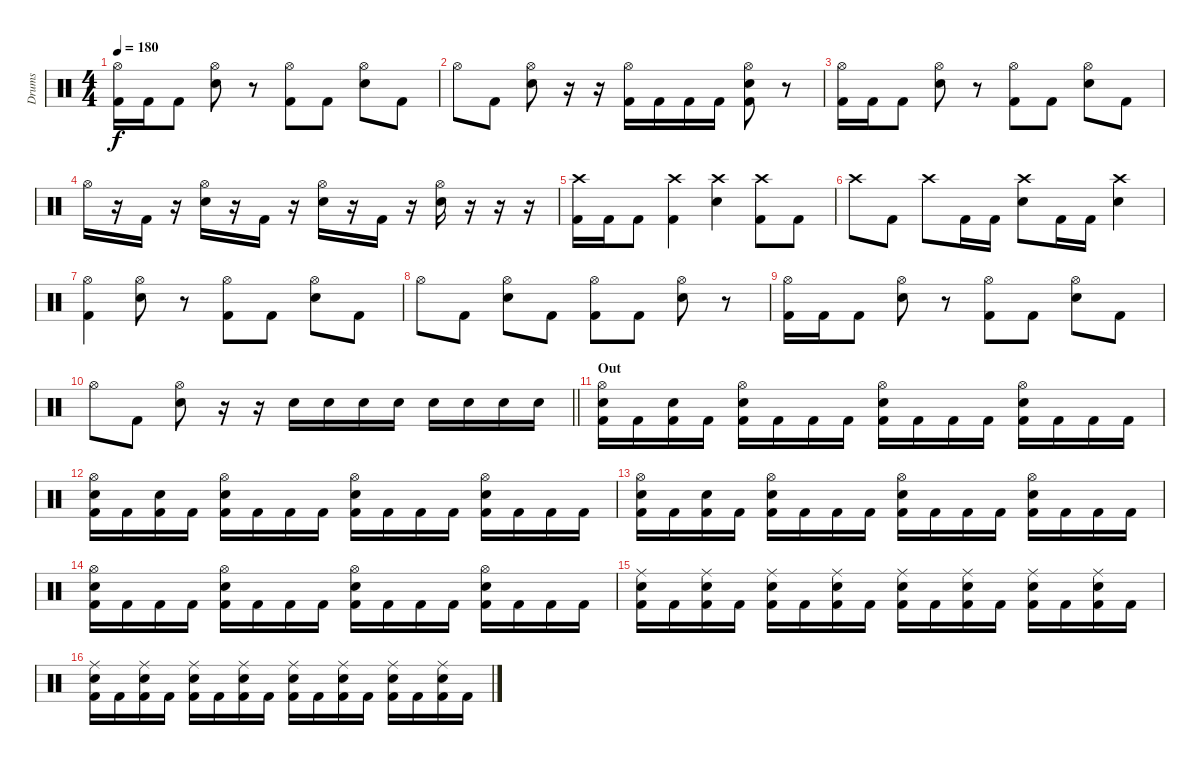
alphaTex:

\track ("Drums" "Drums") {instrument percussion}
\staff {score}
\articulation defaults
\ts (4 4)
\tempo 180
\clef neutral
\ks c
("Hi-Hat (open)" "Kick (hit) 2").16{dy f} "Kick (hit) 2".16 "Kick (hit) 2".8 ("Hi-Hat (open)" "Electric Snare (hit)").8 r.8 ("Hi-Hat (open)" "Kick (hit) 2").8 "Kick (hit) 2".8 ("Hi-Hat (open)" "Electric Snare (hit)").8 "Kick (hit) 2".8 |
"Hi-Hat (open)".8 "Kick (hit) 2".8 ("Hi-Hat (open)" "Electric Snare (hit)").8 r.16 r.16 ("Hi-Hat (open)" "Kick (hit) 2").16 "Kick (hit) 2".16 "Kick (hit) 2".16 "Kick (hit) 2".16 ("Hi-Hat (open)" "Electric Snare (hit)" "Kick (hit) 2").8 r.8 |
("Hi-Hat (open)" "Kick (hit) 2").16 "Kick (hit) 2".16 "Kick (hit) 2".8 ("Hi-Hat (open)" "Electric Snare (hit)").8 r.8 ("Hi-Hat (open)" "Kick (hit) 2").8 "Kick (hit) 2".8 ("Hi-Hat (open)" "Electric Snare (hit)").8 "Kick (hit) 2".8 |
"Hi-Hat (open)".16 r.16 "Kick (hit) 2".16 r.16 ("Hi-Hat (open)" "Electric Snare (hit)").16 r.16 "Kick (hit) 2".16 r.16 ("Hi-Hat (open)" "Electric Snare (hit)").16 r.16 "Kick (hit) 2".16 r.16 ("Hi-Hat (open)" "Electric Snare (hit)").16 r.16 r.16 r.16 |
("Crash high (hit)" "Kick (hit) 2").16 "Kick (hit) 2".16 "Kick (hit) 2".8 ("Crash high (hit)" "Kick (hit) 2").4 ("Crash high (hit)" "Electric Snare (hit)").4 ("Crash high (hit)" "Kick (hit) 2").8 "Kick (hit) 2".8 |
"Crash high (hit)".8 "Kick (hit) 2".8 "Crash high (hit)".8 "Kick (hit) 2".16 "Kick (hit) 2".16 ("Crash high (hit)" "Electric Snare (hit)").8 "Kick (hit) 2".16 "Kick (hit) 2".16 ("Crash high (hit)" "Electric Snare (hit)").4 |
("Hi-Hat (open)" "Kick (hit) 2").4 ("Hi-Hat (open)" "Electric Snare (hit)").8 r.8 ("Hi-Hat (open)" "Kick (hit) 2").8 "Kick (hit) 2".8 ("Hi-Hat (open)" "Electric Snare (hit)").8 "Kick (hit) 2".8 |
"Hi-Hat (open)".8 "Kick (hit) 2".8 ("Hi-Hat (open)" "Electric Snare (hit)").8 "Kick (hit) 2".8 ("Hi-Hat (open)" "Kick (hit) 2").8 "Kick (hit) 2".8 ("Hi-Hat (open)" "Electric Snare (hit)").8 r.8 |
("Hi-Hat (open)" "Kick (hit) 2").16 "Kick (hit) 2".16 "Kick (hit) 2".8 ("Hi-Hat (open)" "Electric Snare (hit)").8 r.8 ("Hi-Hat (open)" "Kick (hit) 2").8 "Kick (hit) 2".8 ("Hi-Hat (open)" "Electric Snare (hit)").8 "Kick (hit) 2".8 |
\barLineRight lightlight "Hi-Hat (open)".8 "Kick (hit) 2".8
("Hi-Hat (open)" "Electric Snare (hit)").8 r.16 r.16 "Electric Snare (hit)".16 "Electric Snare (hit)".16 "Electric Snare (hit)".16 "Electric Snare (hit)".16 "Electric Snare (hit)".16 "Electric Snare (hit)".16 "Electric Snare (hit)".16 "Electric Snare (hit)".16 |
\section ("" "Out")
("Hi-Hat (open)" "Electric Snare (hit)" "Kick (hit) 2").16 "Kick (hit) 2".16 ("Electric Snare (hit)" "Kick (hit) 2").16 "Kick (hit) 2".16 ("Hi-Hat (open)" "Electric Snare (hit)" "Kick (hit) 2").16 "Kick (hit) 2".16 "Kick (hit) 2".16 "Kick (hit) 2".16 ("Hi-Hat (open)" "Electric Snare (hit)" "Kick (hit) 2").16 "Kick (hit) 2".16 "Kick (hit) 2".16 "Kick (hit) 2".16 ("Hi-Hat (open)" "Electric Snare (hit)" "Kick (hit) 2").16 "Kick (hit) 2".16 "Kick (hit) 2".16 "Kick (hit) 2".16 |
("Hi-Hat (open)" "Electric Snare (hit)" "Kick (hit) 2").16 "Kick (hit) 2".16 ("Electric Snare (hit)" "Kick (hit) 2").16 "Kick (hit) 2".16 ("Hi-Hat (open)" "Electric Snare (hit)" "Kick (hit) 2").16 "Kick (hit) 2".16 "Kick (hit) 2".16 "Kick (hit) 2".16 ("Hi-Hat (open)" "Electric Snare (hit)" "Kick (hit) 2").16 "Kick (hit) 2".16 "Kick (hit) 2".16 "Kick (hit) 2".16 ("Hi-Hat (open)" "Electric Snare (hit)" "Kick (hit) 2").16 "Kick (hit) 2".16 "Kick (hit) 2".16 "Kick (hit) 2".16 |
("Hi-Hat (open)" "Electric Snare (hit)" "Kick (hit) 2").16 "Kick (hit) 2".16 ("Electric Snare (hit)" "Kick (hit) 2").16 "Kick (hit) 2".16 ("Hi-Hat (open)" "Electric Snare (hit)" "Kick (hit) 2").16 "Kick (hit) 2".16 "Kick (hit) 2".16 "Kick (hit) 2".16 ("Hi-Hat (open)" "Electric Snare (hit)" "Kick (hit) 2").16 "Kick (hit) 2".16 "Kick (hit) 2".16 "Kick (hit) 2".16 ("Hi-Hat (open)" "Electric Snare (hit)" "Kick (hit) 2").16 "Kick (hit) 2".16 "Kick (hit) 2".16 "Kick (hit) 2".16 |
("Hi-Hat (open)" "Electric Snare (hit)" "Kick (hit) 2").16 "Kick (hit) 2".16 "Kick (hit) 2".16 "Kick (hit) 2".16 ("Hi-Hat (open)" "Electric Snare (hit)" "Kick (hit) 2").16 "Kick (hit) 2".16 "Kick (hit) 2".16 "Kick (hit) 2".16 ("Hi-Hat (open)" "Electric Snare (hit)" "Kick (hit) 2").16 "Kick (hit) 2".16 "Kick (hit) 2".16 "Kick (hit) 2".16 ("Hi-Hat (open)" "Electric Snare (hit)" "Kick (hit) 2").16 "Kick (hit) 2".16 "Kick (hit) 2".16 "Kick (hit) 2".16 |
("Ride (middle)" "Electric Snare (hit)" "Kick (hit) 2").16 "Kick (hit) 2".16 ("Ride (middle)" "Electric Snare (hit)" "Kick (hit) 2").16 "Kick (hit) 2".16 ("Ride (middle)" "Electric Snare (hit)" "Kick (hit) 2").16 "Kick (hit) 2".16 ("Ride (middle)" "Electric Snare (hit)" "Kick (hit) 2").16 "Kick (hit) 2".16 ("Ride (middle)" "Electric Snare (hit)" "Kick (hit) 2").16 "Kick (hit) 2".16 ("Ride (middle)" "Electric Snare (hit)" "Kick (hit) 2").16 "Kick (hit) 2".16 ("Ride (middle)" "Electric Snare (hit)" "Kick (hit) 2").16 "Kick (hit) 2".16 ("Ride (middle)" "Electric Snare (hit)" "Kick (hit) 2").16 "Kick (hit) 2".16 |
("Ride (middle)" "Electric Snare (hit)" "Kick (hit) 2").16 "Kick (hit) 2".16 ("Ride (middle)" "Electric Snare (hit)" "Kick (hit) 2").16 "Kick (hit) 2".16 ("Ride (middle)" "Electric Snare (hit)" "Kick (hit) 2").16 "Kick (hit) 2".16 ("Ride (middle)" "Electric Snare (hit)" "Kick (hit) 2").16 "Kick (hit) 2".16 ("Ride (middle)" "Electric Snare (hit)" "Kick (hit) 2").16 "Kick (hit) 2".16 ("Ride (middle)" "Electric Snare (hit)" "Kick (hit) 2").16 "Kick (hit) 2".16 ("Ride (middle)" "Electric Snare (hit)" "Kick (hit) 2").16 "Kick (hit) 2".16 ("Ride (middle)" "Electric Snare (hit)" "Kick (hit) 2").16 "Kick (hit) 2".16
